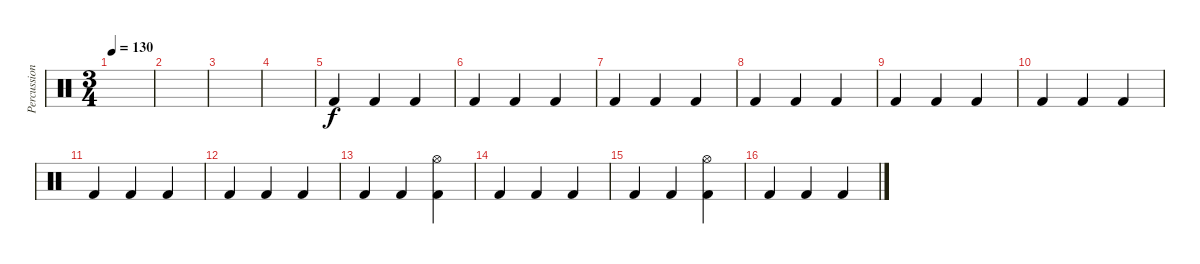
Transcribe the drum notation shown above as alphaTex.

\track ("Percussion" "Percussion") {instrument percussion}
\staff {score}
\articulation defaults
\ts (3 4)
\tempo 130
\clef neutral
\ks c
|
|
|
|
"Kick (hit) 2".4 "Kick (hit) 2".4 "Kick (hit) 2".4 |
"Kick (hit) 2".4 "Kick (hit) 2".4 "Kick (hit) 2".4 |
"Kick (hit) 2".4 "Kick (hit) 2".4 "Kick (hit) 2".4 |
"Kick (hit) 2".4 "Kick (hit) 2".4 "Kick (hit) 2".4 |
"Kick (hit) 2".4 "Kick (hit) 2".4 "Kick (hit) 2".4 |
"Kick (hit) 2".4 "Kick (hit) 2".4 "Kick (hit) 2".4 |
"Kick (hit) 2".4 "Kick (hit) 2".4 "Kick (hit) 2".4 |
"Kick (hit) 2".4 "Kick (hit) 2".4 "Kick (hit) 2".4 |
"Kick (hit) 2".4 "Kick (hit) 2".4 ("Hi-Hat (open)" "Kick (hit) 2").4 |
"Kick (hit) 2".4 "Kick (hit) 2".4 "Kick (hit) 2".4 |
"Kick (hit) 2".4 "Kick (hit) 2".4 ("Hi-Hat (open)" "Kick (hit) 2").4 |
"Kick (hit) 2".4 "Kick (hit) 2".4 "Kick (hit) 2".4
